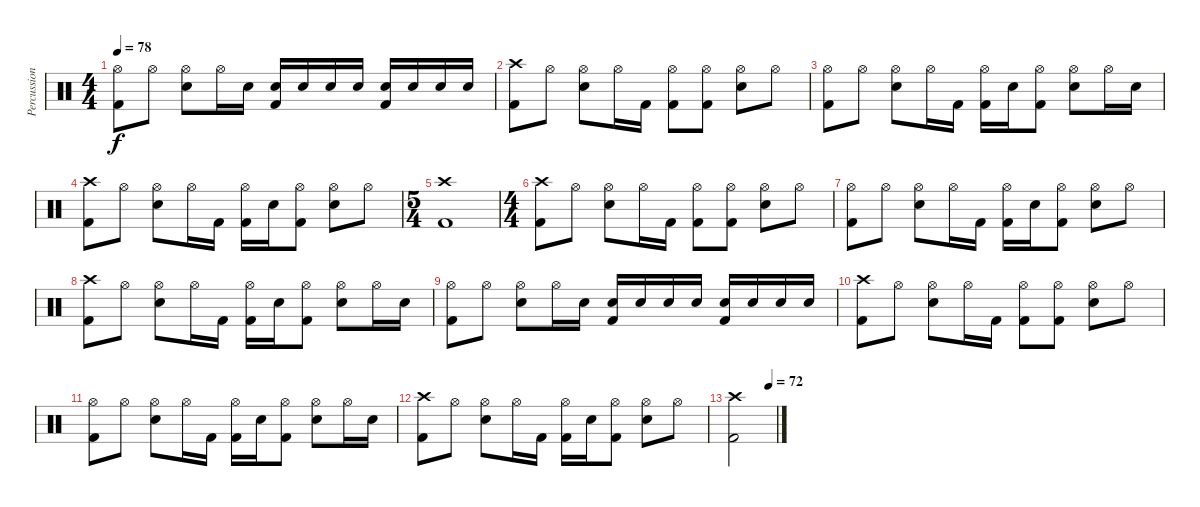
\track ("Percussion" "Percussion") {instrument percussion}
\staff {score}
\articulation defaults
\ts (4 4)
\tempo 78
\clef neutral
\ks c
("Hi-Hat (open)" "Kick (hit) 2").8{dy f} "Hi-Hat (open)".8 ("Hi-Hat (open)" "Electric Snare (hit)").8 "Hi-Hat (open)".16 "Electric Snare (hit)".16 ("Electric Snare (hit)" "Kick (hit) 2").16 "Electric Snare (hit)".16 "Electric Snare (hit)".16 "Electric Snare (hit)".16 ("Electric Snare (hit)" "Kick (hit) 2").16 "Electric Snare (hit)".16 "Electric Snare (hit)".16 "Electric Snare (hit)".16 |
("Crash high (hit)" "Kick (hit) 2").8 "Hi-Hat (open)".8 ("Hi-Hat (open)" "Electric Snare (hit)").8 "Hi-Hat (open)".16 "Kick (hit) 2".16 ("Hi-Hat (open)" "Kick (hit) 2").8 ("Hi-Hat (open)" "Kick (hit) 2").8 ("Hi-Hat (open)" "Electric Snare (hit)").8 "Hi-Hat (open)".8 |
("Hi-Hat (open)" "Kick (hit) 2").8 "Hi-Hat (open)".8 ("Hi-Hat (open)" "Electric Snare (hit)").8 "Hi-Hat (open)".16 "Kick (hit) 2".16 ("Hi-Hat (open)" "Kick (hit) 2").16 "Electric Snare (hit)".16 ("Hi-Hat (open)" "Kick (hit) 2").8 ("Hi-Hat (open)" "Electric Snare (hit)").8 "Hi-Hat (open)".16 "Electric Snare (hit)".16 |
("Crash high (hit)" "Kick (hit) 2").8 "Hi-Hat (open)".8 ("Hi-Hat (open)" "Electric Snare (hit)").8 "Hi-Hat (open)".16 "Kick (hit) 2".16 ("Hi-Hat (open)" "Kick (hit) 2").16 "Electric Snare (hit)".16 ("Hi-Hat (open)" "Kick (hit) 2").8 ("Hi-Hat (open)" "Electric Snare (hit)").8 "Hi-Hat (open)".8 |
\ts (5 4)
("Crash high (hit)" "Kick (hit) 2").1 |
\ts (4 4)
("Crash high (hit)" "Kick (hit) 2").8 "Hi-Hat (open)".8 ("Hi-Hat (open)" "Electric Snare (hit)").8 "Hi-Hat (open)".16 "Kick (hit) 2".16 ("Hi-Hat (open)" "Kick (hit) 2").8 ("Hi-Hat (open)" "Kick (hit) 2").8 ("Hi-Hat (open)" "Electric Snare (hit)").8 "Hi-Hat (open)".8 |
("Hi-Hat (open)" "Kick (hit) 2").8 "Hi-Hat (open)".8 ("Hi-Hat (open)" "Electric Snare (hit)").8 "Hi-Hat (open)".16 "Kick (hit) 2".16 ("Hi-Hat (open)" "Kick (hit) 2").16 "Electric Snare (hit)".16 ("Hi-Hat (open)" "Kick (hit) 2").8 ("Hi-Hat (open)" "Electric Snare (hit)").8 "Hi-Hat (open)".8 |
("Crash high (hit)" "Kick (hit) 2").8 "Hi-Hat (open)".8 ("Hi-Hat (open)" "Electric Snare (hit)").8 "Hi-Hat (open)".16 "Kick (hit) 2".16 ("Hi-Hat (open)" "Kick (hit) 2").16 "Electric Snare (hit)".16 ("Hi-Hat (open)" "Kick (hit) 2").8 ("Hi-Hat (open)" "Electric Snare (hit)").8 "Hi-Hat (open)".16 "Electric Snare (hit)".16 |
("Hi-Hat (open)" "Kick (hit) 2").8 "Hi-Hat (open)".8 ("Hi-Hat (open)" "Electric Snare (hit)").8 "Hi-Hat (open)".16 "Electric Snare (hit)".16 ("Electric Snare (hit)" "Kick (hit) 2").16 "Electric Snare (hit)".16 "Electric Snare (hit)".16 "Electric Snare (hit)".16 ("Electric Snare (hit)" "Kick (hit) 2").16 "Electric Snare (hit)".16 "Electric Snare (hit)".16 "Electric Snare (hit)".16 |
("Crash high (hit)" "Kick (hit) 2").8 "Hi-Hat (open)".8 ("Hi-Hat (open)" "Electric Snare (hit)").8 "Hi-Hat (open)".16 "Kick (hit) 2".16 ("Hi-Hat (open)" "Kick (hit) 2").8 ("Hi-Hat (open)" "Kick (hit) 2").8 ("Hi-Hat (open)" "Electric Snare (hit)").8 "Hi-Hat (open)".8 |
("Hi-Hat (open)" "Kick (hit) 2").8 "Hi-Hat (open)".8 ("Hi-Hat (open)" "Electric Snare (hit)").8 "Hi-Hat (open)".16 "Kick (hit) 2".16 ("Hi-Hat (open)" "Kick (hit) 2").16 "Electric Snare (hit)".16 ("Hi-Hat (open)" "Kick (hit) 2").8 ("Hi-Hat (open)" "Electric Snare (hit)").8 "Hi-Hat (open)".16 "Electric Snare (hit)".16 |
("Crash high (hit)" "Kick (hit) 2").8 "Hi-Hat (open)".8 ("Hi-Hat (open)" "Electric Snare (hit)").8 "Hi-Hat (open)".16 "Kick (hit) 2".16 ("Hi-Hat (open)" "Kick (hit) 2").16 "Electric Snare (hit)".16 ("Hi-Hat (open)" "Kick (hit) 2").8 ("Hi-Hat (open)" "Electric Snare (hit)").8 "Hi-Hat (open)".8 |
\tempo (72 0.8333333333333334)
("Crash high (hit)" "Kick (hit) 2").2
